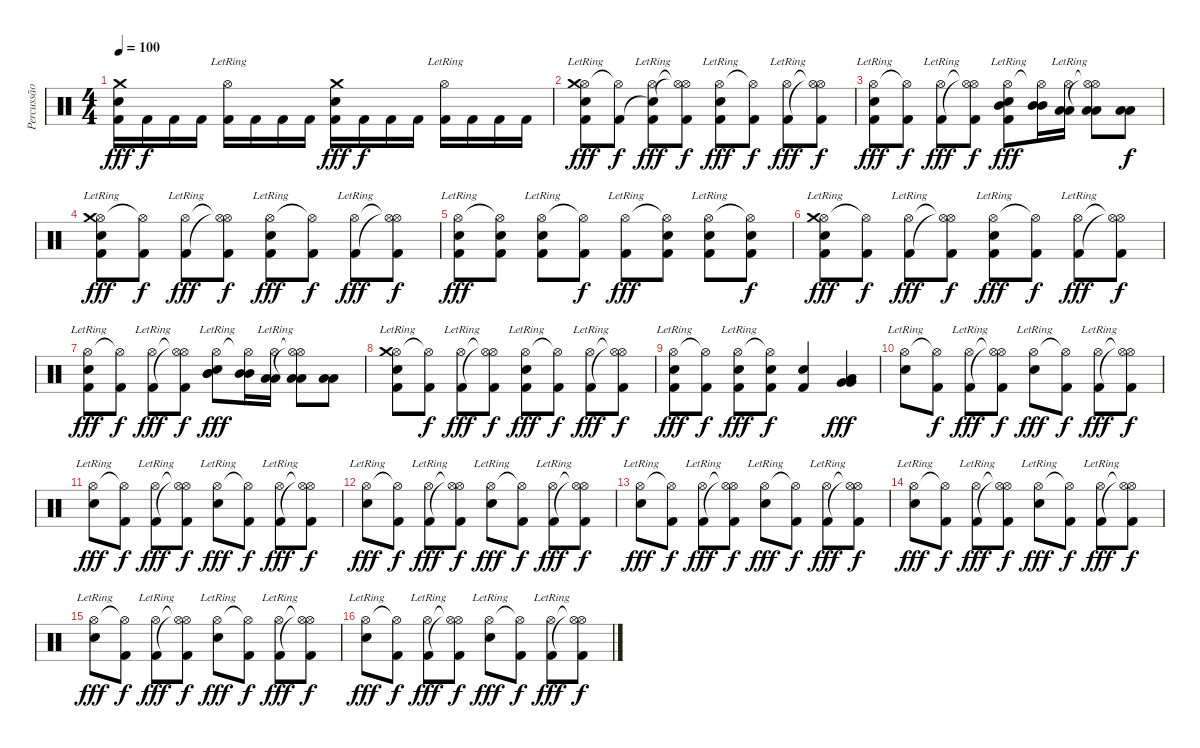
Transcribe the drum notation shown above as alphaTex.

\track ("Percussão" "Percussão") {instrument percussion}
\staff {score}
\articulation defaults
\ts (4 4)
\tempo 100
\clef neutral
\ks c
("Crash medium (hit)" "Electric Snare (hit)" "Kick (hit) 2").16{dy fff} "Kick (hit) 2".16{dy f} "Kick (hit) 2".16 "Kick (hit) 2".16 ("Hi-Hat (open)"{lr} "Kick (hit) 2").16 "Kick (hit) 2".16 "Kick (hit) 2".16 "Kick (hit) 2".16 ("Crash medium (hit)" "Electric Snare (hit)" "Kick (hit) 2").16{dy fff} "Kick (hit) 2".16{dy f} "Kick (hit) 2".16 "Kick (hit) 2".16 ("Hi-Hat (open)"{lr} "Kick (hit) 2").16 "Kick (hit) 2".16 "Kick (hit) 2".16 "Kick (hit) 2".16 |
("Hi-Hat (open)"{lr} "Crash medium (hit)" "Electric Snare (hit)" "Kick (hit) 2").8{dy fff} ("Hi-Hat (open)"{t} "Kick (hit) 2").8{dy f} ("Hi-Hat (open)"{lr} "Snare (hit)"{t} "Kick (hit) 2").8{dy fff} ("Hi-Hat (open)"{t} "Hi-Hat (open)"{t} "Kick (hit) 2").8{dy f} ("Hi-Hat (open)"{lr} "Electric Snare (hit)" "Kick (hit) 2").8{dy fff} ("Hi-Hat (open)"{t} "Kick (hit) 2").8{dy f} ("Hi-Hat (open)"{lr} "Kick (hit) 2").8{dy fff} ("Hi-Hat (open)"{t} "Hi-Hat (open)"{t} "Kick (hit) 2").8{dy f} |
("Hi-Hat (open)"{lr} "Electric Snare (hit)" "Kick (hit) 2").8{dy fff} ("Hi-Hat (open)"{t} "Kick (hit) 2").8{dy f} ("Hi-Hat (open)"{lr} "Kick (hit) 2").8{dy fff} ("Hi-Hat (open)"{t} "Hi-Hat (open)"{t} "Kick (hit) 2").8{dy f} ("Hi-Hat (open)"{lr} "Electric Snare (hit)" "Kick (hit) 2" "Mid Tom (hit)").8{dy fff} ("Hi-Hat (open)"{t} "Mid Tom (hit)" "Mid Tom (hit)").16 ("Hi-Hat (open)"{lr} "Low Tom (hit)" "Low Tom (hit)").16 ("Hi-Hat (open)"{t} "Hi-Hat (open)"{t} "Low Tom (hit)" "Low Tom (hit)").8 ("Low Tom (hit)" "Low Tom (hit)").8{dy f} |
("Hi-Hat (open)"{lr} "Crash medium (hit)" "Electric Snare (hit)" "Kick (hit) 2").8{dy fff} ("Hi-Hat (open)"{t} "Kick (hit) 2").8{dy f} ("Hi-Hat (open)"{lr} "Kick (hit) 2").8{dy fff} ("Hi-Hat (open)"{t} "Hi-Hat (open)"{t} "Kick (hit) 2").8{dy f} ("Hi-Hat (open)"{lr} "Electric Snare (hit)" "Kick (hit) 2").8{dy fff} ("Hi-Hat (open)"{t} "Kick (hit) 2").8{dy f} ("Hi-Hat (open)"{lr} "Kick (hit) 2").8{dy fff} ("Hi-Hat (open)"{t} "Hi-Hat (open)"{t} "Kick (hit) 2").8{dy f} |
("Hi-Hat (open)"{lr} "Electric Snare (hit)" "Kick (hit) 2").8{dy fff} ("Hi-Hat (open)"{t} "Electric Snare (hit)" "Kick (hit) 2").8 ("Hi-Hat (open)"{lr} "Electric Snare (hit)" "Kick (hit) 2").8 ("Hi-Hat (open)"{t} "Kick (hit) 2").8{dy f} ("Hi-Hat (open)"{lr} "Kick (hit) 2").8{dy fff} ("Hi-Hat (open)"{t} "Electric Snare (hit)" "Kick (hit) 2").8 ("Hi-Hat (open)"{lr} "Electric Snare (hit)" "Kick (hit) 2").8 ("Hi-Hat (open)"{t} "Electric Snare (hit)" "Kick (hit) 2").8{dy f} |
("Hi-Hat (open)"{lr} "Crash medium (hit)" "Electric Snare (hit)" "Kick (hit) 2").8{dy fff} ("Hi-Hat (open)"{t} "Kick (hit) 2").8{dy f} ("Hi-Hat (open)"{lr} "Kick (hit) 2").8{dy fff} ("Hi-Hat (open)"{t} "Hi-Hat (open)"{t} "Kick (hit) 2").8{dy f} ("Hi-Hat (open)"{lr} "Electric Snare (hit)" "Kick (hit) 2").8{dy fff} ("Hi-Hat (open)"{t} "Kick (hit) 2").8{dy f} ("Hi-Hat (open)"{lr} "Kick (hit) 2").8{dy fff} ("Hi-Hat (open)"{t} "Hi-Hat (open)"{t} "Kick (hit) 2").8{dy f} |
("Hi-Hat (open)"{lr} "Electric Snare (hit)" "Kick (hit) 2").8{dy fff} ("Hi-Hat (open)"{t} "Kick (hit) 2").8{dy f} ("Hi-Hat (open)"{lr} "Kick (hit) 2").8{dy fff} ("Hi-Hat (open)"{t} "Hi-Hat (open)"{t} "Kick (hit) 2").8{dy f} ("Hi-Hat (open)"{lr} "Electric Snare (hit)" "Mid Tom (hit)" "Mid Tom (hit)").8{dy fff} ("Hi-Hat (open)"{t} "Mid Tom (hit)" "Mid Tom (hit)").16 ("Hi-Hat (open)"{lr} "Low Tom (hit)" "Low Tom (hit)").16 ("Hi-Hat (open)"{t} "Hi-Hat (open)"{t} "Low Tom (hit)" "Low Tom (hit)").8 ("Low Tom (hit)" "Low Tom (hit)").8 |
("Hi-Hat (open)"{lr} "Crash medium (hit)" "Electric Snare (hit)" "Kick (hit) 2").8 ("Hi-Hat (open)"{t} "Kick (hit) 2").8{dy f} ("Hi-Hat (open)"{lr} "Kick (hit) 2").8{dy fff} ("Hi-Hat (open)"{t} "Hi-Hat (open)"{t} "Kick (hit) 2").8{dy f} ("Hi-Hat (open)"{lr} "Electric Snare (hit)" "Kick (hit) 2").8{dy fff} ("Hi-Hat (open)"{t} "Kick (hit) 2").8{dy f} ("Hi-Hat (open)"{lr} "Kick (hit) 2").8{dy fff} ("Hi-Hat (open)"{t} "Hi-Hat (open)"{t} "Kick (hit) 2").8{dy f} |
("Hi-Hat (open)"{lr} "Electric Snare (hit)" "Kick (hit) 2").8{dy fff} ("Hi-Hat (open)"{t} "Kick (hit) 2").8{dy f} ("Hi-Hat (open)"{lr} "Electric Snare (hit)" "Kick (hit) 2").8{dy fff} ("Hi-Hat (open)"{t} "Electric Snare (hit)" "Kick (hit) 2").8{dy f} ("Electric Snare (hit)" "Kick (hit) 2").4 ("Very Low Tom (hit)" "Low Tom (hit)" "Very Low Tom (hit)").4{dy fff} |
("Hi-Hat (open)"{lr} "Electric Snare (hit)").8 ("Hi-Hat (open)"{t} "Kick (hit) 2").8{dy f} ("Hi-Hat (open)"{lr} "Kick (hit) 2").8{dy fff} ("Hi-Hat (open)"{t} "Hi-Hat (open)"{t} "Kick (hit) 2").8{dy f} ("Hi-Hat (open)"{lr} "Electric Snare (hit)").8{dy fff} ("Hi-Hat (open)"{t} "Kick (hit) 2").8{dy f} ("Hi-Hat (open)"{lr} "Kick (hit) 2").8{dy fff} ("Hi-Hat (open)"{t} "Hi-Hat (open)"{t} "Kick (hit) 2").8{dy f} |
("Hi-Hat (open)"{lr} "Electric Snare (hit)").8{dy fff} ("Hi-Hat (open)"{t} "Kick (hit) 2").8{dy f} ("Hi-Hat (open)"{lr} "Kick (hit) 2").8{dy fff} ("Hi-Hat (open)"{t} "Hi-Hat (open)"{t} "Kick (hit) 2").8{dy f} ("Hi-Hat (open)"{lr} "Electric Snare (hit)").8{dy fff} ("Hi-Hat (open)"{t} "Kick (hit) 2").8{dy f} ("Hi-Hat (open)"{lr} "Kick (hit) 2").8{dy fff} ("Hi-Hat (open)"{t} "Hi-Hat (open)"{t} "Kick (hit) 2").8{dy f} |
("Hi-Hat (open)"{lr} "Electric Snare (hit)").8{dy fff} ("Hi-Hat (open)"{t} "Kick (hit) 2").8{dy f} ("Hi-Hat (open)"{lr} "Kick (hit) 2").8{dy fff} ("Hi-Hat (open)"{t} "Hi-Hat (open)"{t} "Kick (hit) 2").8{dy f} ("Hi-Hat (open)"{lr} "Electric Snare (hit)").8{dy fff} ("Hi-Hat (open)"{t} "Kick (hit) 2").8{dy f} ("Hi-Hat (open)"{lr} "Kick (hit) 2").8{dy fff} ("Hi-Hat (open)"{t} "Hi-Hat (open)"{t} "Kick (hit) 2").8{dy f} |
("Hi-Hat (open)"{lr} "Electric Snare (hit)").8{dy fff} ("Hi-Hat (open)"{t} "Kick (hit) 2").8{dy f} ("Hi-Hat (open)"{lr} "Kick (hit) 2").8{dy fff} ("Hi-Hat (open)"{t} "Hi-Hat (open)"{t} "Kick (hit) 2").8{dy f} ("Hi-Hat (open)"{lr} "Electric Snare (hit)").8{dy fff} ("Hi-Hat (open)"{t} "Kick (hit) 2").8{dy f} ("Hi-Hat (open)"{lr} "Kick (hit) 2").8{dy fff} ("Hi-Hat (open)"{t} "Hi-Hat (open)"{t} "Kick (hit) 2").8{dy f} |
("Hi-Hat (open)"{lr} "Electric Snare (hit)").8{dy fff} ("Hi-Hat (open)"{t} "Kick (hit) 2").8{dy f} ("Hi-Hat (open)"{lr} "Kick (hit) 2").8{dy fff} ("Hi-Hat (open)"{t} "Hi-Hat (open)"{t} "Kick (hit) 2").8{dy f} ("Hi-Hat (open)"{lr} "Electric Snare (hit)").8{dy fff} ("Hi-Hat (open)"{t} "Kick (hit) 2").8{dy f} ("Hi-Hat (open)"{lr} "Kick (hit) 2").8{dy fff} ("Hi-Hat (open)"{t} "Hi-Hat (open)"{t} "Kick (hit) 2").8{dy f} |
("Hi-Hat (open)"{lr} "Electric Snare (hit)").8{dy fff} ("Hi-Hat (open)"{t} "Kick (hit) 2").8{dy f} ("Hi-Hat (open)"{lr} "Kick (hit) 2").8{dy fff} ("Hi-Hat (open)"{t} "Hi-Hat (open)"{t} "Kick (hit) 2").8{dy f} ("Hi-Hat (open)"{lr} "Electric Snare (hit)").8{dy fff} ("Hi-Hat (open)"{t} "Kick (hit) 2").8{dy f} ("Hi-Hat (open)"{lr} "Kick (hit) 2").8{dy fff} ("Hi-Hat (open)"{t} "Hi-Hat (open)"{t} "Kick (hit) 2").8{dy f} |
("Hi-Hat (open)"{lr} "Electric Snare (hit)").8{dy fff} ("Hi-Hat (open)"{t} "Kick (hit) 2").8{dy f} ("Hi-Hat (open)"{lr} "Kick (hit) 2").8{dy fff} ("Hi-Hat (open)"{t} "Hi-Hat (open)"{t} "Kick (hit) 2").8{dy f} ("Hi-Hat (open)"{lr} "Electric Snare (hit)").8{dy fff} ("Hi-Hat (open)"{t} "Kick (hit) 2").8{dy f} ("Hi-Hat (open)"{lr} "Kick (hit) 2").8{dy fff} ("Hi-Hat (open)"{t} "Hi-Hat (open)"{t} "Kick (hit) 2").8{dy f}
